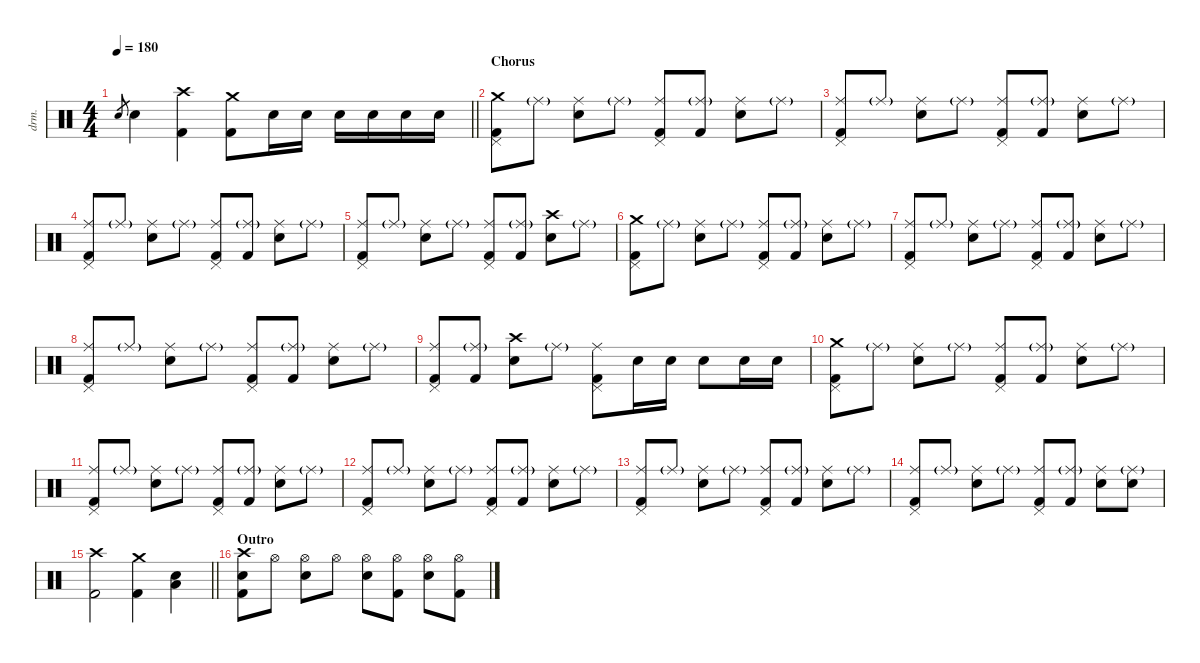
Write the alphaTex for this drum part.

\defaultSystemsLayout 4
\hideDynamics
\bracketExtendMode nobrackets
\otherSystemsTrackNameOrientation horizontal
\track ("Drums: Ritsu Tainaka" "drm.") {instrument percussion}
\staff {score}
\articulation defaults
\ts (4 4)
\tempo 180
\clef neutral
\barLineRight lightlight
\ks c "Electric Snare (hit)".8{gr dy mf beam Up} "Snare (hit) 2".4{dy f beam Down}
("Crash high (hit)" "Kick (hit) 2").4{beam Down} ("Crash medium (hit)" "Kick (hit) 2").8{beam Down} "Snare (hit) 2".16{beam Down} "Snare (hit) 2".16{beam Down} "Snare (hit) 2".16{beam Down} "Snare (hit) 2".16{beam Down} "Snare (hit) 2".16{beam Down} "Snare (hit) 2".16{beam Down} |
\section ("" "Chorus")
("Crash medium (hit)" "Pedal Hi-Hat (hit)" "Kick (hit) 2").8{beam Down} "Ride (middle)"{g}.8{dy mf beam Down} ("Ride (middle)" "Snare (hit) 2").8{dy f beam Down} "Ride (middle)"{g}.8{dy mf beam Down} ("Ride (middle)" "Pedal Hi-Hat (hit)" "Kick (hit) 2").8{dy f beam Up} ("Ride (middle)"{g} "Kick (hit) 2").8{beam Up} ("Ride (middle)" "Snare (hit) 2").8{beam Down} "Ride (middle)"{g}.8{dy mf beam Down} |
("Ride (middle)" "Pedal Hi-Hat (hit)" "Kick (hit) 2").8{dy f beam Up} "Ride (middle)"{g}.8{dy mf beam Up} ("Ride (middle)" "Snare (hit) 2").8{dy f beam Down} "Ride (middle)"{g}.8{dy mf beam Down} ("Ride (middle)" "Pedal Hi-Hat (hit)" "Kick (hit) 2").8{dy f beam Up} ("Ride (middle)"{g} "Kick (hit) 2").8{beam Up} ("Ride (middle)" "Snare (hit) 2").8{beam Down} "Ride (middle)"{g}.8{dy mf beam Down} |
("Ride (middle)" "Pedal Hi-Hat (hit)" "Kick (hit) 2").8{dy f beam Up} "Ride (middle)"{g}.8{dy mf beam Up} ("Ride (middle)" "Snare (hit) 2").8{dy f beam Down} "Ride (middle)"{g}.8{dy mf beam Down} ("Ride (middle)" "Pedal Hi-Hat (hit)" "Kick (hit) 2").8{dy f beam Up} ("Ride (middle)"{g} "Kick (hit) 2").8{beam Up} ("Ride (middle)" "Snare (hit) 2").8{beam Down} "Ride (middle)"{g}.8{dy mf beam Down} |
("Ride (middle)" "Pedal Hi-Hat (hit)" "Kick (hit) 2").8{dy f beam Up} "Ride (middle)"{g}.8{dy mf beam Up} ("Ride (middle)" "Snare (hit) 2").8{dy f beam Down} "Ride (middle)"{g}.8{dy mf beam Down} ("Ride (middle)" "Pedal Hi-Hat (hit)" "Kick (hit) 2").8{dy f beam Up} ("Ride (middle)"{g} "Kick (hit) 2").8{beam Up} ("Crash high (hit)" "Snare (hit) 2").8{beam Down} "Ride (middle)"{g}.8{dy mf beam Down} |
("Crash medium (hit)" "Pedal Hi-Hat (hit)" "Kick (hit) 2").8{dy f beam Down} "Ride (middle)"{g}.8{dy mf beam Down} ("Ride (middle)" "Snare (hit) 2").8{dy f beam Down} "Ride (middle)"{g}.8{dy mf beam Down} ("Ride (middle)" "Pedal Hi-Hat (hit)" "Kick (hit) 2").8{dy f beam Up} ("Ride (middle)"{g} "Kick (hit) 2").8{beam Up} ("Ride (middle)" "Snare (hit) 2").8{beam Down} "Ride (middle)"{g}.8{dy mf beam Down} |
("Ride (middle)" "Pedal Hi-Hat (hit)" "Kick (hit) 2").8{dy f beam Up} "Ride (middle)"{g}.8{dy mf beam Up} ("Ride (middle)" "Snare (hit) 2").8{dy f beam Down} "Ride (middle)"{g}.8{dy mf beam Down} ("Ride (middle)" "Pedal Hi-Hat (hit)" "Kick (hit) 2").8{dy f beam Up} ("Ride (middle)"{g} "Kick (hit) 2").8{beam Up} ("Ride (middle)" "Snare (hit) 2").8{beam Down} "Ride (middle)"{g}.8{dy mf beam Down} |
("Ride (middle)" "Pedal Hi-Hat (hit)" "Kick (hit) 2").8{dy f beam Up} "Ride (middle)"{g}.8{dy mf beam Up} ("Ride (middle)" "Snare (hit) 2").8{dy f beam Down} "Ride (middle)"{g}.8{dy mf beam Down} ("Ride (middle)" "Pedal Hi-Hat (hit)" "Kick (hit) 2").8{dy f beam Up} ("Ride (middle)"{g} "Kick (hit) 2").8{beam Up} ("Ride (middle)" "Snare (hit) 2").8{beam Down} "Ride (middle)"{g}.8{dy mf beam Down} |
("Ride (middle)" "Pedal Hi-Hat (hit)" "Kick (hit) 2").8{dy f beam Up} ("Ride (middle)"{g} "Kick (hit) 2").8{beam Up} ("Crash high (hit)" "Snare (hit) 2").8{beam Down} "Ride (middle)"{g}.8{dy mf beam Down} ("Ride (middle)" "Pedal Hi-Hat (hit)" "Kick (hit) 2").8{dy f beam Down} "Snare (hit) 2".16{beam Down} "Snare (hit) 2".16{beam Down} "Snare (hit) 2".8{beam Down} "Snare (hit) 2".16{beam Down} "Snare (hit) 2".16{beam Down} |
("Crash medium (hit)" "Pedal Hi-Hat (hit)" "Kick (hit) 2").8{beam Down} "Ride (middle)"{g}.8{dy mf beam Down} ("Ride (middle)" "Snare (hit) 2").8{dy f beam Down} "Ride (middle)"{g}.8{dy mf beam Down} ("Ride (middle)" "Pedal Hi-Hat (hit)" "Kick (hit) 2").8{dy f beam Up} ("Ride (middle)"{g} "Kick (hit) 2").8{beam Up} ("Ride (middle)" "Snare (hit) 2").8{beam Down} "Ride (middle)"{g}.8{dy mf beam Down} |
("Ride (middle)" "Pedal Hi-Hat (hit)" "Kick (hit) 2").8{dy f beam Up} "Ride (middle)"{g}.8{dy mf beam Up} ("Ride (middle)" "Snare (hit) 2").8{dy f beam Down} "Ride (middle)"{g}.8{dy mf beam Down} ("Ride (middle)" "Pedal Hi-Hat (hit)" "Kick (hit) 2").8{dy f beam Up} ("Ride (middle)"{g} "Kick (hit) 2").8{beam Up} ("Ride (middle)" "Snare (hit) 2").8{beam Down} "Ride (middle)"{g}.8{dy mf beam Down} |
("Ride (middle)" "Pedal Hi-Hat (hit)" "Kick (hit) 2").8{dy f beam Up} "Ride (middle)"{g}.8{dy mf beam Up} ("Ride (middle)" "Snare (hit) 2").8{dy f beam Down} "Ride (middle)"{g}.8{dy mf beam Down} ("Ride (middle)" "Pedal Hi-Hat (hit)" "Kick (hit) 2").8{dy f beam Up} ("Ride (middle)"{g} "Kick (hit) 2").8{beam Up} ("Ride (middle)" "Snare (hit) 2").8{beam Down} "Ride (middle)"{g}.8{dy mf beam Down} |
("Ride (middle)" "Pedal Hi-Hat (hit)" "Kick (hit) 2").8{dy f beam Up} "Ride (middle)"{g}.8{dy mf beam Up} ("Ride (middle)" "Snare (hit) 2").8{dy f beam Down} "Ride (middle)"{g}.8{dy mf beam Down} ("Ride (middle)" "Pedal Hi-Hat (hit)" "Kick (hit) 2").8{dy f beam Up} ("Ride (middle)"{g} "Kick (hit) 2").8{beam Up} ("Ride (middle)" "Snare (hit) 2").8{beam Down} "Ride (middle)"{g}.8{dy mf beam Down} |
("Ride (middle)" "Pedal Hi-Hat (hit)" "Kick (hit) 2").8{dy f beam Up} "Ride (middle)"{g}.8{dy mf beam Up} ("Ride (middle)" "Snare (hit) 2").8{dy f beam Down} "Ride (middle)"{g}.8{dy mf beam Down} ("Ride (middle)" "Pedal Hi-Hat (hit)" "Kick (hit) 2").8{dy f beam Up} ("Ride (middle)"{g} "Kick (hit) 2").8{beam Up} ("Ride (middle)" "Snare (hit) 2").8{beam Down} ("Ride (middle)"{g} "Snare (hit) 2").8{beam Down} |
\barLineRight lightlight
("Crash high (hit)" "Kick (hit) 2").2{beam Down} ("Crash medium (hit)" "Kick (hit) 2").4{beam Down} ("Snare (hit) 2" "Low Floor Tom (hit)").4{beam Down} |
\section ("" "Outro")
("Crash high (hit)" "Snare (hit) 2" "Kick (hit) 2").8{beam Down} "Hi-Hat (open)".8{beam Down} ("Hi-Hat (open)" "Snare (hit) 2").8{beam Down} "Hi-Hat (open)".8{beam Down} ("Hi-Hat (open)" "Snare (hit) 2").8{beam Down} ("Hi-Hat (open)" "Kick (hit) 2").8{beam Down} ("Hi-Hat (open)" "Snare (hit) 2").8{beam Down} ("Hi-Hat (open)" "Kick (hit) 2").8{beam Down}
